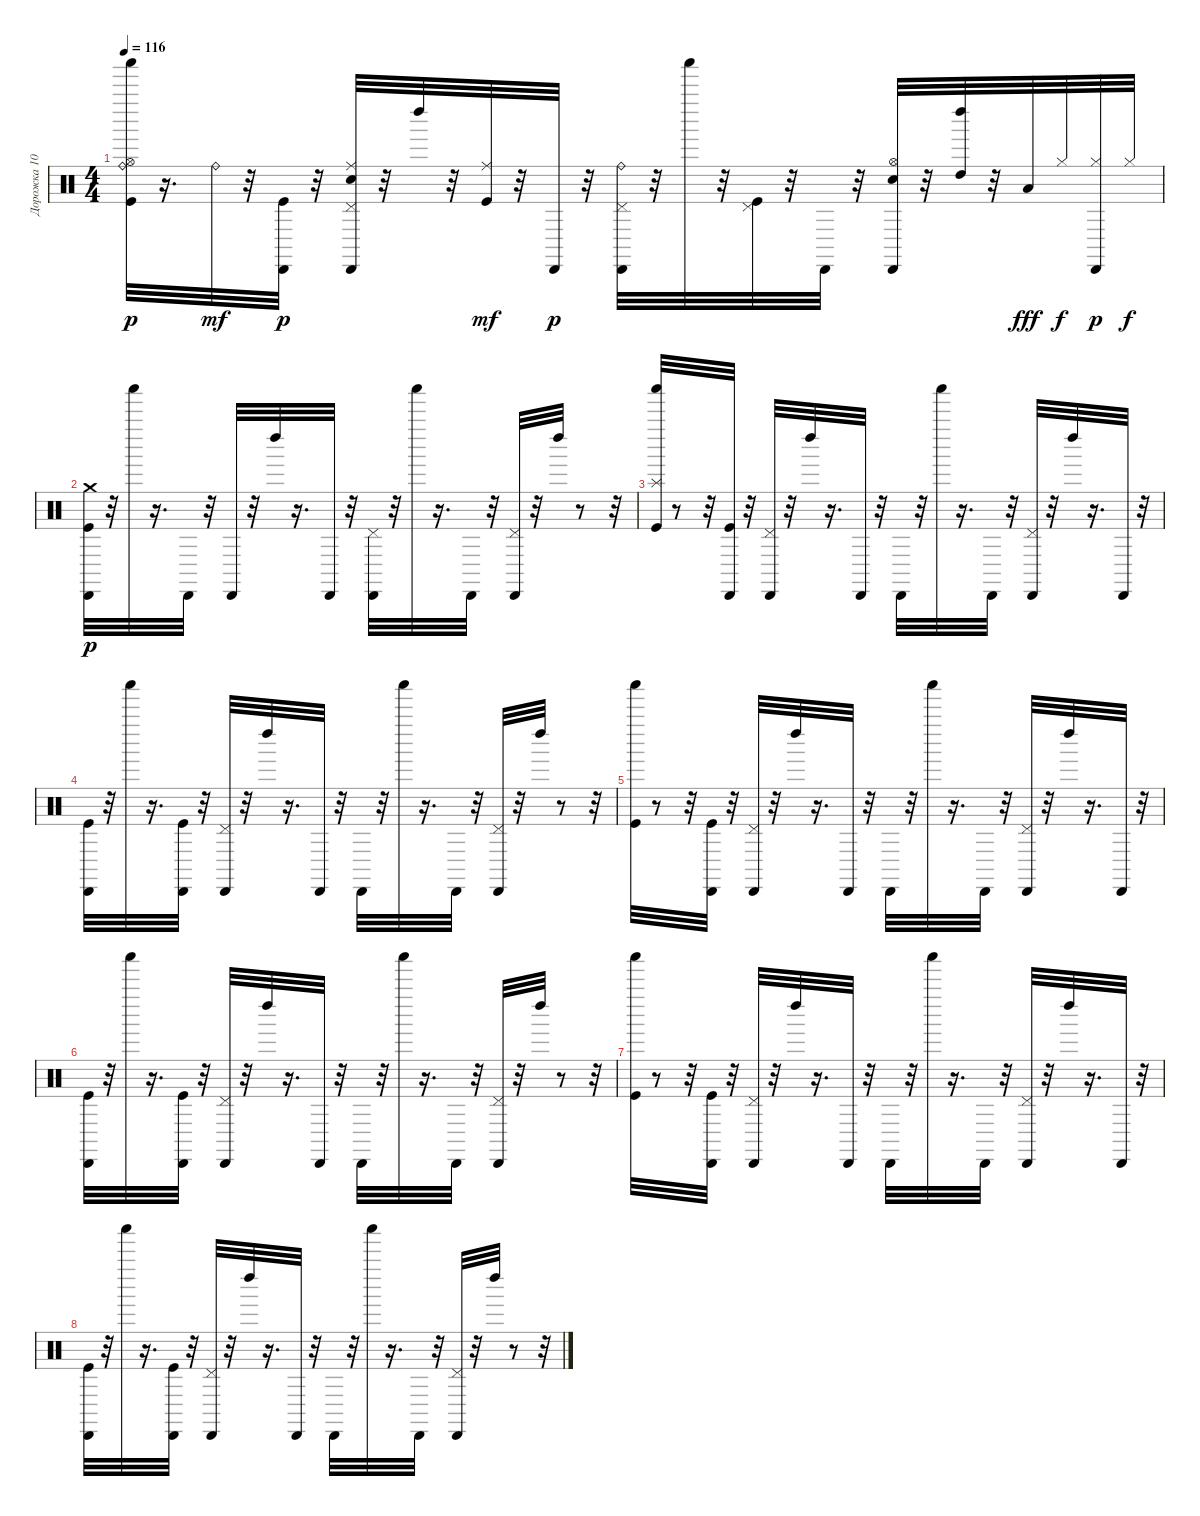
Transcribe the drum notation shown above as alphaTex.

\track ("Дорожка 10" "Дорожка 10") {instrument percussion}
\staff {score}
\articulation defaults
\ts (4 4)
\tempo 116
\clef neutral
\ks c
("Kick (hit)" "Hi-Hat (open)" "Ride (bell)" "Shaker (hit)").32{dy p} r.16{d} "Ride (bell)".32{dy mf} r.32 ("Kick (hit)" "Cabasa (hit)").32{dy p} r.32 ("Electric Snare (hit)" "Ride (middle)" "Pedal Hi-Hat (hit)" "Cabasa (hit)").32 r.32 "Left Maraca (hit)".32 r.32 ("Kick (hit)" "Ride (middle)").32{dy mf} r.32 "Cabasa (hit)".32{dy p} r.32 ("Pedal Hi-Hat (hit)" "Ride (bell)" "Cabasa (hit)").32 r.32 "Shaker (hit)".32 r.32 ("Kick (hit)" "Pedal Hi-Hat (hit)").32 r.32 "Cabasa (hit)".32 r.32 ("Electric Snare (hit)" "Hi-Hat (open)" "Cabasa (hit)").32 r.32 ("High Tom (hit)" "Left Maraca (hit)").32 r.32 "Low Tom (hit)".32{dy fff} "Hi-Hat (closed)".32{dy f} ("Hi-Hat (closed)" "Cabasa (hit)").32{dy p} "Hi-Hat (closed)".32{dy f} |
("Kick (hit)" "Cabasa (hit)" "Crash medium (hit)").32{dy p} r.32 "Shaker (hit)".32 r.16{d} "Cabasa (hit)".32 r.32 "Cabasa (hit)".32 r.32 "Left Maraca (hit)".32 r.16{d} "Cabasa (hit)".32 r.32 ("Pedal Hi-Hat (hit)" "Cabasa (hit)").32 r.32 "Shaker (hit)".32 r.16{d} "Cabasa (hit)".32 r.32 ("Pedal Hi-Hat (hit)" "Cabasa (hit)").32 r.32 "Left Maraca (hit)".32 r.8 r.32 |
("Kick (hit)" "Splash (hit)" "Shaker (hit)").32 r.8 r.32 ("Kick (hit)" "Cabasa (hit)").32 r.32 ("Pedal Hi-Hat (hit)" "Cabasa (hit)").32 r.32 "Left Maraca (hit)".32 r.16{d} "Cabasa (hit)".32 r.32 "Cabasa (hit)".32 r.32 "Shaker (hit)".32 r.16{d} "Cabasa (hit)".32 r.32 ("Pedal Hi-Hat (hit)" "Cabasa (hit)").32 r.32 "Left Maraca (hit)".32 r.16{d} "Cabasa (hit)".32 r.32 |
("Kick (hit)" "Cabasa (hit)").32 r.32 "Shaker (hit)".32 r.16{d} ("Kick (hit)" "Cabasa (hit)").32 r.32 ("Pedal Hi-Hat (hit)" "Cabasa (hit)").32 r.32 "Left Maraca (hit)".32 r.16{d} "Cabasa (hit)".32 r.32 "Cabasa (hit)".32 r.32 "Shaker (hit)".32 r.16{d} "Cabasa (hit)".32 r.32 ("Pedal Hi-Hat (hit)" "Cabasa (hit)").32 r.32 "Left Maraca (hit)".32 r.8 r.32 |
("Kick (hit)" "Shaker (hit)").32 r.8 r.32 ("Kick (hit)" "Cabasa (hit)").32 r.32 ("Pedal Hi-Hat (hit)" "Cabasa (hit)").32 r.32 "Left Maraca (hit)".32 r.16{d} "Cabasa (hit)".32 r.32 "Cabasa (hit)".32 r.32 "Shaker (hit)".32 r.16{d} "Cabasa (hit)".32 r.32 ("Pedal Hi-Hat (hit)" "Cabasa (hit)").32 r.32 "Left Maraca (hit)".32 r.16{d} "Cabasa (hit)".32 r.32 |
("Kick (hit)" "Cabasa (hit)").32 r.32 "Shaker (hit)".32 r.16{d} ("Kick (hit)" "Cabasa (hit)").32 r.32 ("Pedal Hi-Hat (hit)" "Cabasa (hit)").32 r.32 "Left Maraca (hit)".32 r.16{d} "Cabasa (hit)".32 r.32 "Cabasa (hit)".32 r.32 "Shaker (hit)".32 r.16{d} "Cabasa (hit)".32 r.32 ("Pedal Hi-Hat (hit)" "Cabasa (hit)").32 r.32 "Left Maraca (hit)".32 r.8 r.32 |
("Kick (hit)" "Shaker (hit)").32 r.8 r.32 ("Kick (hit)" "Cabasa (hit)").32 r.32 ("Pedal Hi-Hat (hit)" "Cabasa (hit)").32 r.32 "Left Maraca (hit)".32 r.16{d} "Cabasa (hit)".32 r.32 "Cabasa (hit)".32 r.32 "Shaker (hit)".32 r.16{d} "Cabasa (hit)".32 r.32 ("Pedal Hi-Hat (hit)" "Cabasa (hit)").32 r.32 "Left Maraca (hit)".32 r.16{d} "Cabasa (hit)".32 r.32 |
("Kick (hit)" "Cabasa (hit)").32 r.32 "Shaker (hit)".32 r.16{d} ("Kick (hit)" "Cabasa (hit)").32 r.32 ("Pedal Hi-Hat (hit)" "Cabasa (hit)").32 r.32 "Left Maraca (hit)".32 r.16{d} "Cabasa (hit)".32 r.32 "Cabasa (hit)".32 r.32 "Shaker (hit)".32 r.16{d} "Cabasa (hit)".32 r.32 ("Pedal Hi-Hat (hit)" "Cabasa (hit)").32 r.32 "Left Maraca (hit)".32 r.8 r.32
